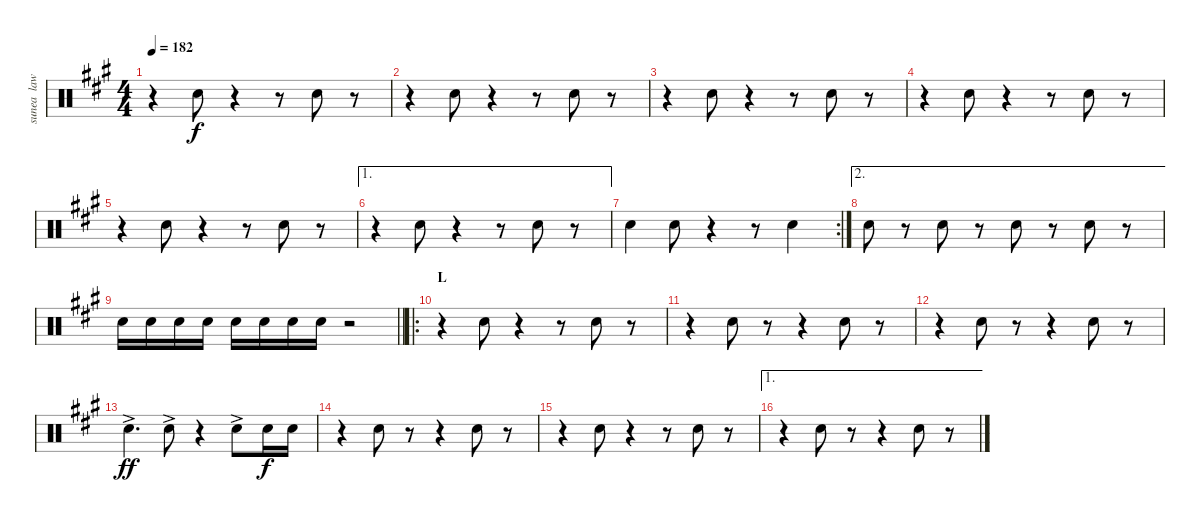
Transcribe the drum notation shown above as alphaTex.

\track ("sunea  law tam" "sunea  law") {instrument percussion}
\staff {score}
\articulation defaults
\ts (4 4)
\tempo 182
\clef neutral
\ks f#minor
r.4{dy f} "Snare (hit) 2".8 r.4 r.8 "Snare (hit) 2".8 r.8 |
r.4 "Snare (hit) 2".8 r.4 r.8 "Snare (hit) 2".8 r.8 |
r.4 "Snare (hit) 2".8 r.4 r.8 "Snare (hit) 2".8 r.8 |
r.4 "Snare (hit) 2".8 r.4 r.8 "Snare (hit) 2".8 r.8 |
r.4 "Snare (hit) 2".8 r.4 r.8 "Snare (hit) 2".8 r.8 |
\ae 1
r.4 "Snare (hit) 2".8 r.4 r.8 "Snare (hit) 2".8 r.8 |
\rc 2 "Snare (hit) 2".4 "Snare (hit) 2".8
r.4 r.8 "Snare (hit) 2".4 |
\ae 2 "Snare (hit) 2".8
r.8 "Snare (hit) 2".8 r.8 "Snare (hit) 2".8 r.8 "Snare (hit) 2".8 r.8 |
\barLineRight lightlight "Snare (hit) 2".16 "Snare (hit) 2".16 "Snare (hit) 2".16 "Snare (hit) 2".16 "Snare (hit) 2".16 "Snare (hit) 2".16 "Snare (hit) 2".16 "Snare (hit) 2".16
r.2 |
\ro
\section ("" "L")
r.4 "Snare (hit) 2".8 r.4 r.8 "Snare (hit) 2".8 r.8 |
r.4 "Snare (hit) 2".8 r.8 r.4 "Snare (hit) 2".8 r.8 |
r.4 "Snare (hit) 2".8 r.8 r.4 "Snare (hit) 2".8 r.8 |
"Snare (hit) 2"{ac}.4{d dy ff} "Snare (hit) 2"{ac}.8 r.4 "Snare (hit) 2"{ac}.8 "Snare (hit) 2".16{dy f} "Snare (hit) 2".16 |
r.4 "Snare (hit) 2".8 r.8 r.4 "Snare (hit) 2".8 r.8 |
r.4 "Snare (hit) 2".8 r.4 r.8 "Snare (hit) 2".8 r.8 |
\ae 1
r.4 "Snare (hit) 2".8 r.8 r.4 "Snare (hit) 2".8 r.8
